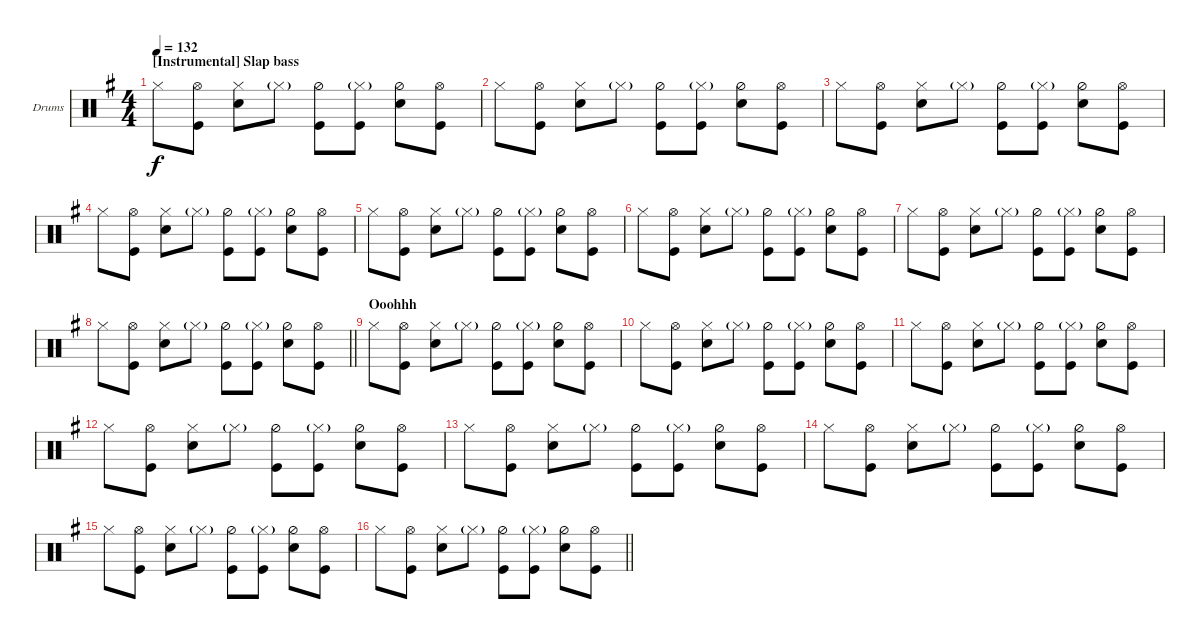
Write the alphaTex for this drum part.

\bracketExtendMode groupsimilarinstruments
\firstSystemTrackNameOrientation horizontal
\otherSystemsTrackNameOrientation horizontal
\track ("Drumkit" "Drums") {instrument percussion}
\staff {score}
\articulation defaults
\ts (4 4)
\section ("" "[Instrumental] Slap bass")
\tempo 132
\clef neutral
\scale
0.333333
\ks g "Hi-Hat (closed)".8{dy f}
("Hi-Hat (open)" "Kick (hit)").8 ("Hi-Hat (closed)" "Snare (hit) 2").8 "Hi-Hat (closed)"{g}.8 ("Hi-Hat (half)" "Kick (hit)").8 ("Hi-Hat (closed)"{g} "Kick (hit)").8 ("Hi-Hat (half)" "Snare (hit) 2").8 ("Kick (hit)" "Hi-Hat (open)").8 |
\scale
0.333333 "Hi-Hat (closed)".8 ("Hi-Hat (open)" "Kick (hit)").8 ("Hi-Hat (closed)" "Snare (hit) 2").8 "Hi-Hat (closed)"{g}.8 ("Hi-Hat (half)" "Kick (hit)").8 ("Hi-Hat (closed)"{g} "Kick (hit)").8 ("Hi-Hat (half)" "Snare (hit) 2").8 ("Kick (hit)" "Hi-Hat (open)").8 |
\scale
0.333333 "Hi-Hat (closed)".8 ("Hi-Hat (open)" "Kick (hit)").8 ("Hi-Hat (closed)" "Snare (hit) 2").8 "Hi-Hat (closed)"{g}.8 ("Hi-Hat (half)" "Kick (hit)").8 ("Hi-Hat (closed)"{g} "Kick (hit)").8 ("Hi-Hat (half)" "Snare (hit) 2").8 ("Kick (hit)" "Hi-Hat (open)").8 |
\scale
0.333333 "Hi-Hat (closed)".8 ("Hi-Hat (open)" "Kick (hit)").8 ("Hi-Hat (closed)" "Snare (hit) 2").8 "Hi-Hat (closed)"{g}.8 ("Hi-Hat (half)" "Kick (hit)").8 ("Hi-Hat (closed)"{g} "Kick (hit)").8 ("Hi-Hat (half)" "Snare (hit) 2").8 ("Kick (hit)" "Hi-Hat (open)").8 |
\scale
0.333333 "Hi-Hat (closed)".8 ("Hi-Hat (open)" "Kick (hit)").8 ("Hi-Hat (closed)" "Snare (hit) 2").8 "Hi-Hat (closed)"{g}.8 ("Hi-Hat (half)" "Kick (hit)").8 ("Hi-Hat (closed)"{g} "Kick (hit)").8 ("Hi-Hat (half)" "Snare (hit) 2").8 ("Kick (hit)" "Hi-Hat (open)").8 |
\scale
0.333333 "Hi-Hat (closed)".8 ("Hi-Hat (open)" "Kick (hit)").8 ("Hi-Hat (closed)" "Snare (hit) 2").8 "Hi-Hat (closed)"{g}.8 ("Hi-Hat (half)" "Kick (hit)").8 ("Hi-Hat (closed)"{g} "Kick (hit)").8 ("Hi-Hat (half)" "Snare (hit) 2").8 ("Kick (hit)" "Hi-Hat (open)").8 |
\scale
0.333333 "Hi-Hat (closed)".8 ("Hi-Hat (open)" "Kick (hit)").8 ("Hi-Hat (closed)" "Snare (hit) 2").8 "Hi-Hat (closed)"{g}.8 ("Hi-Hat (half)" "Kick (hit)").8 ("Hi-Hat (closed)"{g} "Kick (hit)").8 ("Hi-Hat (half)" "Snare (hit) 2").8 ("Kick (hit)" "Hi-Hat (open)").8 |
\scale
0.333333
\barLineRight lightlight "Hi-Hat (closed)".8
("Hi-Hat (open)" "Kick (hit)").8 ("Hi-Hat (closed)" "Snare (hit) 2").8 "Hi-Hat (closed)"{g}.8 ("Hi-Hat (half)" "Kick (hit)").8 ("Hi-Hat (closed)"{g} "Kick (hit)").8 ("Hi-Hat (half)" "Snare (hit) 2").8 ("Kick (hit)" "Hi-Hat (open)").8 |
\section ("" "Ooohhh")
\scale
0.333333 "Hi-Hat (closed)".8 ("Hi-Hat (open)" "Kick (hit)").8 ("Hi-Hat (closed)" "Snare (hit) 2").8 "Hi-Hat (closed)"{g}.8 ("Hi-Hat (half)" "Kick (hit)").8 ("Hi-Hat (closed)"{g} "Kick (hit)").8 ("Hi-Hat (half)" "Snare (hit) 2").8 ("Kick (hit)" "Hi-Hat (open)").8 |
\scale
0.333333 "Hi-Hat (closed)".8 ("Hi-Hat (open)" "Kick (hit)").8 ("Hi-Hat (closed)" "Snare (hit) 2").8 "Hi-Hat (closed)"{g}.8 ("Hi-Hat (half)" "Kick (hit)").8 ("Hi-Hat (closed)"{g} "Kick (hit)").8 ("Hi-Hat (half)" "Snare (hit) 2").8 ("Kick (hit)" "Hi-Hat (open)").8 |
\scale
0.333333 "Hi-Hat (closed)".8 ("Hi-Hat (open)" "Kick (hit)").8 ("Hi-Hat (closed)" "Snare (hit) 2").8 "Hi-Hat (closed)"{g}.8 ("Hi-Hat (half)" "Kick (hit)").8 ("Hi-Hat (closed)"{g} "Kick (hit)").8 ("Hi-Hat (half)" "Snare (hit) 2").8 ("Kick (hit)" "Hi-Hat (open)").8 |
\scale
0.333333 "Hi-Hat (closed)".8 ("Hi-Hat (open)" "Kick (hit)").8 ("Hi-Hat (closed)" "Snare (hit) 2").8 "Hi-Hat (closed)"{g}.8 ("Hi-Hat (half)" "Kick (hit)").8 ("Hi-Hat (closed)"{g} "Kick (hit)").8 ("Hi-Hat (half)" "Snare (hit) 2").8 ("Kick (hit)" "Hi-Hat (open)").8 |
\scale
0.333333 "Hi-Hat (closed)".8 ("Hi-Hat (open)" "Kick (hit)").8 ("Hi-Hat (closed)" "Snare (hit) 2").8 "Hi-Hat (closed)"{g}.8 ("Hi-Hat (half)" "Kick (hit)").8 ("Hi-Hat (closed)"{g} "Kick (hit)").8 ("Hi-Hat (half)" "Snare (hit) 2").8 ("Kick (hit)" "Hi-Hat (open)").8 |
\scale
0.333333 "Hi-Hat (closed)".8 ("Hi-Hat (open)" "Kick (hit)").8 ("Hi-Hat (closed)" "Snare (hit) 2").8 "Hi-Hat (closed)"{g}.8 ("Hi-Hat (half)" "Kick (hit)").8 ("Hi-Hat (closed)"{g} "Kick (hit)").8 ("Hi-Hat (half)" "Snare (hit) 2").8 ("Kick (hit)" "Hi-Hat (open)").8 |
\scale
0.333333 "Hi-Hat (closed)".8 ("Hi-Hat (open)" "Kick (hit)").8 ("Hi-Hat (closed)" "Snare (hit) 2").8 "Hi-Hat (closed)"{g}.8 ("Hi-Hat (half)" "Kick (hit)").8 ("Hi-Hat (closed)"{g} "Kick (hit)").8 ("Hi-Hat (half)" "Snare (hit) 2").8 ("Kick (hit)" "Hi-Hat (open)").8 |
\scale
0.333333
\barLineRight lightlight "Hi-Hat (closed)".8
("Hi-Hat (open)" "Kick (hit)").8 ("Hi-Hat (closed)" "Snare (hit) 2").8 "Hi-Hat (closed)"{g}.8 ("Hi-Hat (half)" "Kick (hit)").8 ("Hi-Hat (closed)"{g} "Kick (hit)").8 ("Hi-Hat (half)" "Snare (hit) 2").8 ("Kick (hit)" "Hi-Hat (open)").8
